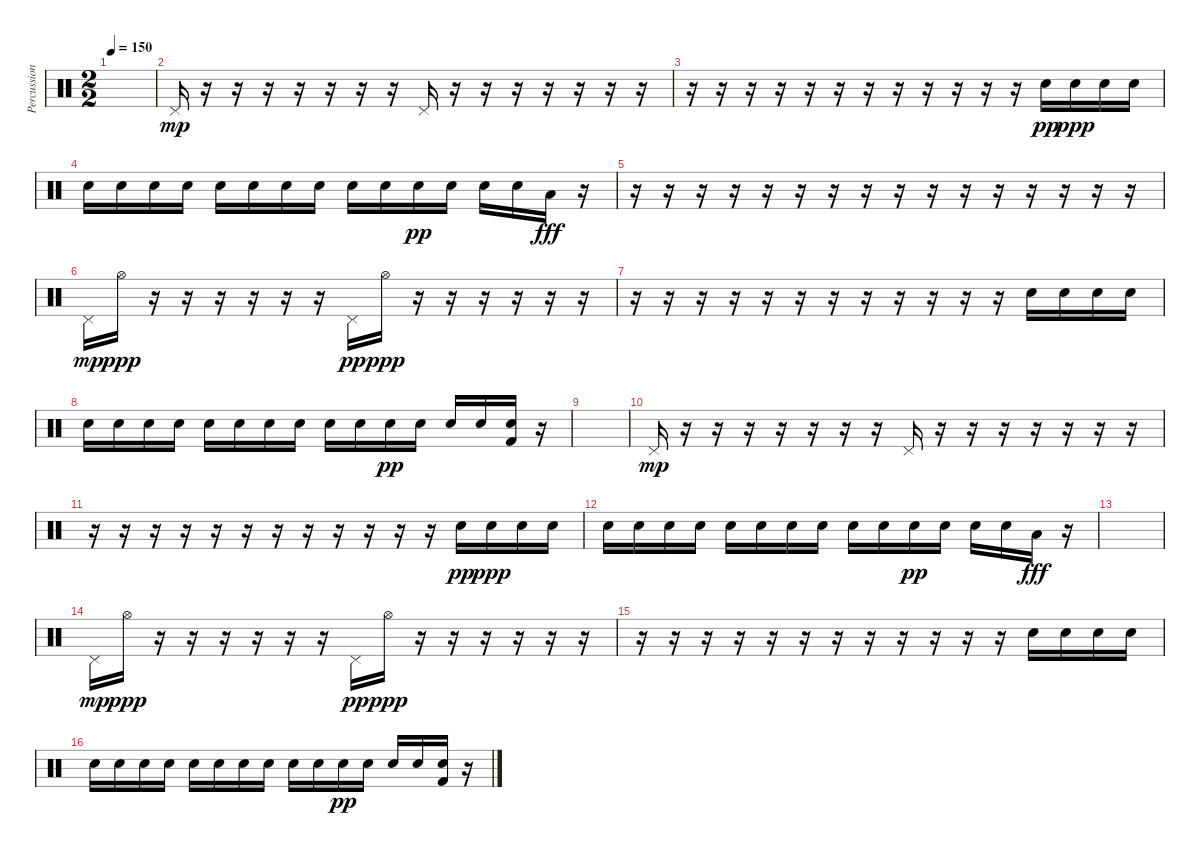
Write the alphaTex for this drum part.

\track ("Percussion" "Percussion") {instrument percussion}
\staff {score}
\articulation defaults
\ts (2 2)
\tempo 150
\clef neutral
\ks c
|
"Pedal Hi-Hat (hit)".16{dy mp} r.16 r.16 r.16 r.16 r.16 r.16 r.16 "Pedal Hi-Hat (hit)".16 r.16 r.16 r.16 r.16 r.16 r.16 r.16 |
r.16 r.16 r.16 r.16 r.16 r.16 r.16 r.16 r.16 r.16 r.16 r.16 "Snare (hit) 2".16{dy pp} "Snare (hit) 2".16{dy ppp} "Snare (hit) 2".16 "Snare (hit) 2".16 |
"Snare (hit) 2".16 "Snare (hit) 2".16 "Snare (hit) 2".16 "Snare (hit) 2".16 "Snare (hit) 2".16 "Snare (hit) 2".16 "Snare (hit) 2".16 "Snare (hit) 2".16 "Snare (hit) 2".16 "Snare (hit) 2".16 "Snare (hit) 2".16{dy pp} "Snare (hit) 2".16 "Snare (hit) 2".16 "Snare (hit) 2".16 "Low Floor Tom (hit)".16{dy fff} r.16 |
r.16 r.16 r.16 r.16 r.16 r.16 r.16 r.16 r.16 r.16 r.16 r.16 r.16 r.16 r.16 r.16 |
"Pedal Hi-Hat (hit)".16{dy mp} "Hi-Hat (open)".16{dy ppp} r.16 r.16 r.16 r.16 r.16 r.16 "Pedal Hi-Hat (hit)".16{dy pp} "Hi-Hat (open)".16{dy ppp} r.16 r.16 r.16 r.16 r.16 r.16 |
r.16 r.16 r.16 r.16 r.16 r.16 r.16 r.16 r.16 r.16 r.16 r.16 "Snare (hit) 2".16 "Snare (hit) 2".16 "Snare (hit) 2".16 "Snare (hit) 2".16 |
"Snare (hit) 2".16 "Snare (hit) 2".16 "Snare (hit) 2".16 "Snare (hit) 2".16 "Snare (hit) 2".16 "Snare (hit) 2".16 "Snare (hit) 2".16 "Snare (hit) 2".16 "Snare (hit) 2".16 "Snare (hit) 2".16 "Snare (hit) 2".16{dy pp} "Snare (hit) 2".16 "Snare (hit) 2".16 "Snare (hit) 2".16 ("Snare (hit) 2" "Kick (hit) 2").16 r.16 |
|
"Pedal Hi-Hat (hit)".16{dy mp} r.16 r.16 r.16 r.16 r.16 r.16 r.16 "Pedal Hi-Hat (hit)".16 r.16 r.16 r.16 r.16 r.16 r.16 r.16 |
r.16 r.16 r.16 r.16 r.16 r.16 r.16 r.16 r.16 r.16 r.16 r.16 "Snare (hit) 2".16{dy pp} "Snare (hit) 2".16{dy ppp} "Snare (hit) 2".16 "Snare (hit) 2".16 |
"Snare (hit) 2".16 "Snare (hit) 2".16 "Snare (hit) 2".16 "Snare (hit) 2".16 "Snare (hit) 2".16 "Snare (hit) 2".16 "Snare (hit) 2".16 "Snare (hit) 2".16 "Snare (hit) 2".16 "Snare (hit) 2".16 "Snare (hit) 2".16{dy pp} "Snare (hit) 2".16 "Snare (hit) 2".16 "Snare (hit) 2".16 "Low Floor Tom (hit)".16{dy fff} r.16 |
|
"Pedal Hi-Hat (hit)".16{dy mp} "Hi-Hat (open)".16{dy ppp} r.16 r.16 r.16 r.16 r.16 r.16 "Pedal Hi-Hat (hit)".16{dy pp} "Hi-Hat (open)".16{dy ppp} r.16 r.16 r.16 r.16 r.16 r.16 |
r.16 r.16 r.16 r.16 r.16 r.16 r.16 r.16 r.16 r.16 r.16 r.16 "Snare (hit) 2".16 "Snare (hit) 2".16 "Snare (hit) 2".16 "Snare (hit) 2".16 |
"Snare (hit) 2".16 "Snare (hit) 2".16 "Snare (hit) 2".16 "Snare (hit) 2".16 "Snare (hit) 2".16 "Snare (hit) 2".16 "Snare (hit) 2".16 "Snare (hit) 2".16 "Snare (hit) 2".16 "Snare (hit) 2".16 "Snare (hit) 2".16{dy pp} "Snare (hit) 2".16 "Snare (hit) 2".16 "Snare (hit) 2".16 ("Snare (hit) 2" "Kick (hit) 2").16 r.16
